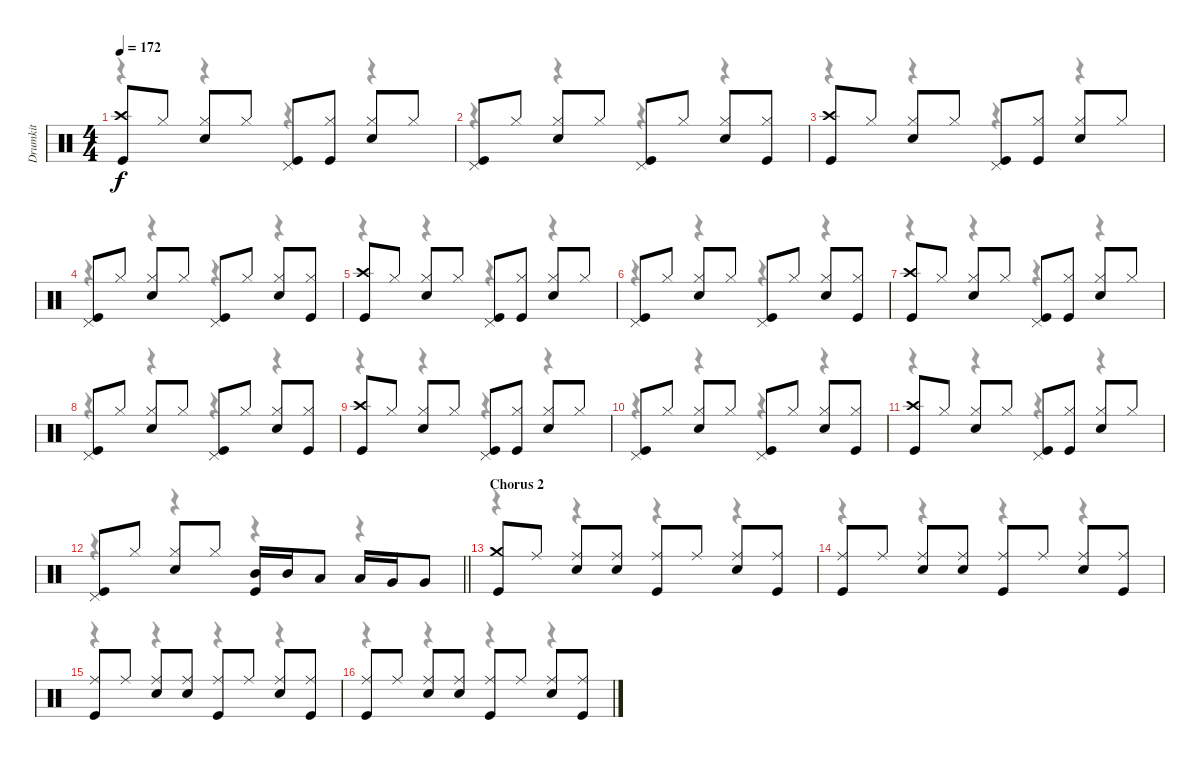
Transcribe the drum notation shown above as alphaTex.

\track ("Drumkit" "Drumkit") {instrument percussion}
\staff {score}
\articulation defaults
\voice
\ts (4 4)
\tempo 172
\clef neutral
\ks c
("Crash high (hit)" "Kick (hit)").8{dy f} "Hi-Hat (closed)".8 ("Hi-Hat (closed)" "Snare (hit) 2").8 "Hi-Hat (closed)".8 ("Pedal Hi-Hat (hit)" "Kick (hit)").8 ("Hi-Hat (closed)" "Kick (hit)").8 ("Hi-Hat (closed)" "Snare (hit) 2").8 "Hi-Hat (closed)".8 |
("Pedal Hi-Hat (hit)" "Kick (hit)").8 "Hi-Hat (closed)".8 ("Hi-Hat (closed)" "Snare (hit) 2").8 "Hi-Hat (closed)".8 ("Pedal Hi-Hat (hit)" "Kick (hit)").8 "Hi-Hat (closed)".8 ("Hi-Hat (closed)" "Snare (hit) 2").8 ("Hi-Hat (closed)" "Kick (hit)").8 |
("Crash high (hit)" "Kick (hit)").8 "Hi-Hat (closed)".8 ("Hi-Hat (closed)" "Snare (hit) 2").8 "Hi-Hat (closed)".8 ("Pedal Hi-Hat (hit)" "Kick (hit)").8 ("Hi-Hat (closed)" "Kick (hit)").8 ("Hi-Hat (closed)" "Snare (hit) 2").8 "Hi-Hat (closed)".8 |
("Pedal Hi-Hat (hit)" "Kick (hit)").8 "Hi-Hat (closed)".8 ("Hi-Hat (closed)" "Snare (hit) 2").8 "Hi-Hat (closed)".8 ("Pedal Hi-Hat (hit)" "Kick (hit)").8 "Hi-Hat (closed)".8 ("Hi-Hat (closed)" "Snare (hit) 2").8 ("Hi-Hat (closed)" "Kick (hit)").8 |
("Crash high (hit)" "Kick (hit)").8 "Hi-Hat (closed)".8 ("Hi-Hat (closed)" "Snare (hit) 2").8 "Hi-Hat (closed)".8 ("Pedal Hi-Hat (hit)" "Kick (hit)").8 ("Hi-Hat (closed)" "Kick (hit)").8 ("Hi-Hat (closed)" "Snare (hit) 2").8 "Hi-Hat (closed)".8 |
("Pedal Hi-Hat (hit)" "Kick (hit)").8 "Hi-Hat (closed)".8 ("Hi-Hat (closed)" "Snare (hit) 2").8 "Hi-Hat (closed)".8 ("Pedal Hi-Hat (hit)" "Kick (hit)").8 "Hi-Hat (closed)".8 ("Hi-Hat (closed)" "Snare (hit) 2").8 ("Hi-Hat (closed)" "Kick (hit)").8 |
("Crash high (hit)" "Kick (hit)").8 "Hi-Hat (closed)".8 ("Hi-Hat (closed)" "Snare (hit) 2").8 "Hi-Hat (closed)".8 ("Pedal Hi-Hat (hit)" "Kick (hit)").8 ("Hi-Hat (closed)" "Kick (hit)").8 ("Hi-Hat (closed)" "Snare (hit) 2").8 "Hi-Hat (closed)".8 |
("Pedal Hi-Hat (hit)" "Kick (hit)").8 "Hi-Hat (closed)".8 ("Hi-Hat (closed)" "Snare (hit) 2").8 "Hi-Hat (closed)".8 ("Pedal Hi-Hat (hit)" "Kick (hit)").8 "Hi-Hat (closed)".8 ("Hi-Hat (closed)" "Snare (hit) 2").8 ("Hi-Hat (closed)" "Kick (hit)").8 |
("Crash high (hit)" "Kick (hit)").8 "Hi-Hat (closed)".8 ("Hi-Hat (closed)" "Snare (hit) 2").8 "Hi-Hat (closed)".8 ("Pedal Hi-Hat (hit)" "Kick (hit)").8 ("Hi-Hat (closed)" "Kick (hit)").8 ("Hi-Hat (closed)" "Snare (hit) 2").8 "Hi-Hat (closed)".8 |
("Pedal Hi-Hat (hit)" "Kick (hit)").8 "Hi-Hat (closed)".8 ("Hi-Hat (closed)" "Snare (hit) 2").8 "Hi-Hat (closed)".8 ("Pedal Hi-Hat (hit)" "Kick (hit)").8 "Hi-Hat (closed)".8 ("Hi-Hat (closed)" "Snare (hit) 2").8 ("Hi-Hat (closed)" "Kick (hit)").8 |
("Crash high (hit)" "Kick (hit)").8 "Hi-Hat (closed)".8 ("Hi-Hat (closed)" "Snare (hit) 2").8 "Hi-Hat (closed)".8 ("Pedal Hi-Hat (hit)" "Kick (hit)").8 ("Hi-Hat (closed)" "Kick (hit)").8 ("Hi-Hat (closed)" "Snare (hit) 2").8 "Hi-Hat (closed)".8 |
\barLineRight lightlight
("Pedal Hi-Hat (hit)" "Kick (hit)").8 "Hi-Hat (closed)".8 ("Hi-Hat (closed)" "Snare (hit) 2").8 "Hi-Hat (closed)".8 ("Mid Tom (hit)" "Kick (hit)").16 "Mid Tom (hit)".16 "Low Tom (hit)".8 "Low Tom (hit)".16 "Very Low Tom (hit)".16 "Very Low Tom (hit)".8 |
\section ("" "Chorus 2")
("Crash medium (hit)" "Kick (hit)").8 "Ride (middle)".8 ("Ride (middle)" "Snare (hit) 2").8 ("Ride (middle)" "Snare (hit) 2").8 ("Ride (middle)" "Kick (hit)").8 "Ride (middle)".8 ("Ride (middle)" "Snare (hit) 2").8 ("Ride (middle)" "Kick (hit)").8 |
("Ride (middle)" "Kick (hit)").8 "Ride (middle)".8 ("Ride (middle)" "Snare (hit) 2").8 ("Ride (middle)" "Snare (hit) 2").8 ("Ride (middle)" "Kick (hit)").8 "Ride (middle)".8 ("Ride (middle)" "Snare (hit) 2").8 ("Ride (middle)" "Kick (hit)").8 |
("Ride (middle)" "Kick (hit)").8 "Ride (middle)".8 ("Ride (middle)" "Snare (hit) 2").8 ("Ride (middle)" "Snare (hit) 2").8 ("Ride (middle)" "Kick (hit)").8 "Ride (middle)".8 ("Ride (middle)" "Snare (hit) 2").8 ("Ride (middle)" "Kick (hit)").8 |
("Ride (middle)" "Kick (hit)").8 "Ride (middle)".8 ("Ride (middle)" "Snare (hit) 2").8 ("Ride (middle)" "Snare (hit) 2").8 ("Ride (middle)" "Kick (hit)").8 "Ride (middle)".8 ("Ride (middle)" "Snare (hit) 2").8 ("Ride (middle)" "Kick (hit)").8
\voice
\clef neutral
\ottava regular
\simile none
\ks c
r.4{dy f} r.4 r.4 r.4 |
r.4 r.4 r.4 r.4 |
r.4 r.4 r.4 r.4 |
r.4 r.4 r.4 r.4 |
r.4 r.4 r.4 r.4 |
r.4 r.4 r.4 r.4 |
r.4 r.4 r.4 r.4 |
r.4 r.4 r.4 r.4 |
r.4 r.4 r.4 r.4 |
r.4 r.4 r.4 r.4 |
r.4 r.4 r.4 r.4 |
\barLineRight lightlight
r.4 r.4 r.4 r.4 |
r.4 r.4 r.4 r.4 |
r.4 r.4 r.4 r.4 |
r.4 r.4 r.4 r.4 |
r.4 r.4 r.4 r.4
